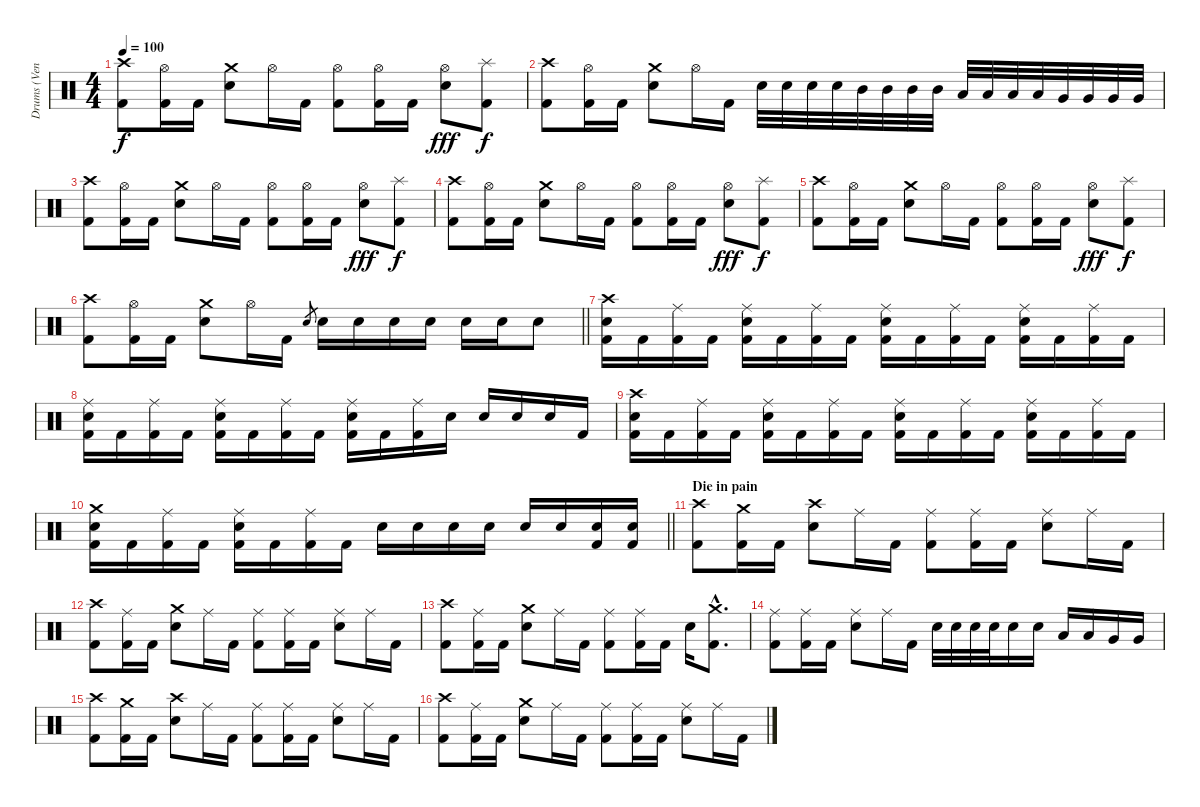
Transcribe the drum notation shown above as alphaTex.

\track ("Drums (Ventor)" "Drums (Ven") {instrument percussion}
\staff {score}
\articulation defaults
\ts (4 4)
\tempo 100
\clef neutral
\ks c
("Crash high (hit)" "Kick (hit) 2").8{dy f} ("Hi-Hat (open)" "Kick (hit) 2").16 "Kick (hit) 2".16 ("Electric Snare (hit)" "Crash medium (hit)").8 "Hi-Hat (open)".16 "Kick (hit) 2".16 ("Hi-Hat (open)" "Kick (hit) 2").8 ("Hi-Hat (open)" "Kick (hit) 2").16 "Kick (hit) 2".16 ("Electric Snare (hit)" "Hi-Hat (open)").8{dy fff} ("Splash (hit)" "Kick (hit) 2").8{dy f} |
("Crash high (hit)" "Kick (hit) 2").8 ("Hi-Hat (open)" "Kick (hit) 2").16 "Kick (hit) 2".16 ("Electric Snare (hit)" "Crash medium (hit)").8 "Hi-Hat (open)".16 "Kick (hit) 2".16 "Electric Snare (hit)".32 "Electric Snare (hit)".32 "Electric Snare (hit)".32 "Electric Snare (hit)".32 "Mid Tom (hit)".32 "Mid Tom (hit)".32 "Mid Tom (hit)".32 "Mid Tom (hit)".32 "Low Tom (hit)".32 "Low Tom (hit)".32 "Low Tom (hit)".32 "Low Tom (hit)".32 "Very Low Tom (hit)".32 "Very Low Tom (hit)".32 "Very Low Tom (hit)".32 "Very Low Tom (hit)".32 |
("Crash high (hit)" "Kick (hit) 2").8 ("Hi-Hat (open)" "Kick (hit) 2").16 "Kick (hit) 2".16 ("Electric Snare (hit)" "Crash medium (hit)").8 "Hi-Hat (open)".16 "Kick (hit) 2".16 ("Hi-Hat (open)" "Kick (hit) 2").8 ("Hi-Hat (open)" "Kick (hit) 2").16 "Kick (hit) 2".16 ("Electric Snare (hit)" "Hi-Hat (open)").8{dy fff} ("Splash (hit)" "Kick (hit) 2").8{dy f} |
("Crash high (hit)" "Kick (hit) 2").8 ("Hi-Hat (open)" "Kick (hit) 2").16 "Kick (hit) 2".16 ("Electric Snare (hit)" "Crash medium (hit)").8 "Hi-Hat (open)".16 "Kick (hit) 2".16 ("Hi-Hat (open)" "Kick (hit) 2").8 ("Hi-Hat (open)" "Kick (hit) 2").16 "Kick (hit) 2".16 ("Electric Snare (hit)" "Hi-Hat (open)").8{dy fff} ("Splash (hit)" "Kick (hit) 2").8{dy f} |
("Crash high (hit)" "Kick (hit) 2").8 ("Hi-Hat (open)" "Kick (hit) 2").16 "Kick (hit) 2".16 ("Electric Snare (hit)" "Crash medium (hit)").8 "Hi-Hat (open)".16 "Kick (hit) 2".16 ("Hi-Hat (open)" "Kick (hit) 2").8 ("Hi-Hat (open)" "Kick (hit) 2").16 "Kick (hit) 2".16 ("Electric Snare (hit)" "Hi-Hat (open)").8{dy fff} ("Splash (hit)" "Kick (hit) 2").8{dy f} |
\barLineRight lightlight
("Crash high (hit)" "Kick (hit) 2").8 ("Hi-Hat (open)" "Kick (hit) 2").16 "Kick (hit) 2".16 ("Electric Snare (hit)" "Crash medium (hit)").8 "Hi-Hat (open)".16 "Kick (hit) 2".16 "Electric Snare (hit)".8{gr} "Electric Snare (hit)".16 "Electric Snare (hit)".16 "Electric Snare (hit)".16 "Electric Snare (hit)".16 "Electric Snare (hit)".16 "Electric Snare (hit)".16 "Electric Snare (hit)".8 |
("Electric Snare (hit)" "Crash high (hit)" "Kick (hit) 2").16 "Kick (hit) 2".16 ("Ride (middle)" "Kick (hit) 2").16 "Kick (hit) 2".16 ("Electric Snare (hit)" "Ride (middle)" "Kick (hit) 2").16 "Kick (hit) 2".16 ("Ride (middle)" "Kick (hit) 2").16 "Kick (hit) 2".16 ("Electric Snare (hit)" "Ride (middle)" "Kick (hit) 2").16 "Kick (hit) 2".16 ("Ride (middle)" "Kick (hit) 2").16 "Kick (hit) 2".16 ("Electric Snare (hit)" "Ride (middle)" "Kick (hit) 2").16 "Kick (hit) 2".16 ("Ride (middle)" "Kick (hit) 2").16 "Kick (hit) 2".16 |
("Electric Snare (hit)" "Ride (middle)" "Kick (hit) 2").16 "Kick (hit) 2".16 ("Ride (middle)" "Kick (hit) 2").16 "Kick (hit) 2".16 ("Electric Snare (hit)" "Ride (middle)" "Kick (hit) 2").16 "Kick (hit) 2".16 ("Ride (middle)" "Kick (hit) 2").16 "Kick (hit) 2".16 ("Electric Snare (hit)" "Ride (middle)" "Kick (hit) 2").16 "Kick (hit) 2".16 ("Ride (middle)" "Kick (hit) 2").16 "Electric Snare (hit)".16 "Electric Snare (hit)".16 "Electric Snare (hit)".16 "Electric Snare (hit)".16 "Kick (hit) 2".16 |
("Electric Snare (hit)" "Crash high (hit)" "Kick (hit) 2").16 "Kick (hit) 2".16 ("Ride (middle)" "Kick (hit) 2").16 "Kick (hit) 2".16 ("Electric Snare (hit)" "Ride (middle)" "Kick (hit) 2").16 "Kick (hit) 2".16 ("Ride (middle)" "Kick (hit) 2").16 "Kick (hit) 2".16 ("Electric Snare (hit)" "Ride (middle)" "Kick (hit) 2").16 "Kick (hit) 2".16 ("Ride (middle)" "Kick (hit) 2").16 "Kick (hit) 2".16 ("Electric Snare (hit)" "Ride (middle)" "Kick (hit) 2").16 "Kick (hit) 2".16 ("Ride (middle)" "Kick (hit) 2").16 "Kick (hit) 2".16 |
\barLineRight lightlight
("Electric Snare (hit)" "Crash medium (hit)" "Kick (hit) 2").16 "Kick (hit) 2".16 ("Ride (middle)" "Kick (hit) 2").16 "Kick (hit) 2".16 ("Electric Snare (hit)" "Ride (middle)" "Kick (hit) 2").16 "Kick (hit) 2".16 ("Ride (middle)" "Kick (hit) 2").16 "Kick (hit) 2".16 "Electric Snare (hit)".16 "Electric Snare (hit)".16 "Electric Snare (hit)".16 "Electric Snare (hit)".16 "Electric Snare (hit)".16 "Electric Snare (hit)".16 ("Electric Snare (hit)" "Kick (hit) 2").16 ("Electric Snare (hit)" "Kick (hit) 2").16 |
\section ("" "Die in pain")
("Crash high (hit)" "Kick (hit) 2").8 ("Crash medium (hit)" "Kick (hit) 2").16 "Kick (hit) 2".16 ("Electric Snare (hit)" "Crash high (hit)").8 "Ride (middle)".16 "Kick (hit) 2".16 ("Ride (middle)" "Kick (hit) 2").8 ("Ride (middle)" "Kick (hit) 2").16 "Kick (hit) 2".16 ("Electric Snare (hit)" "Ride (middle)").8 "Ride (middle)".16 "Kick (hit) 2".16 |
("Crash high (hit)" "Kick (hit) 2").8 ("Ride (middle)" "Kick (hit) 2").16 "Kick (hit) 2".16 ("Electric Snare (hit)" "Crash medium (hit)").8 "Ride (middle)".16 "Kick (hit) 2".16 ("Ride (middle)" "Kick (hit) 2").8 ("Ride (middle)" "Kick (hit) 2").16 "Kick (hit) 2".16 ("Electric Snare (hit)" "Ride (middle)").8 "Ride (middle)".16 "Kick (hit) 2".16 |
("Crash high (hit)" "Kick (hit) 2").8 ("Ride (middle)" "Kick (hit) 2").16 "Kick (hit) 2".16 ("Electric Snare (hit)" "Crash medium (hit)").8 "Ride (middle)".16 "Kick (hit) 2".16 ("Ride (middle)" "Kick (hit) 2").8 ("Ride (middle)" "Kick (hit) 2").16 "Kick (hit) 2".16 "Electric Snare (hit)".16 ("Crash medium (hit)"{hac} "Kick (hit) 2"{hac}).8{d} |
("Ride (middle)" "Kick (hit) 2").8 ("Ride (middle)" "Kick (hit) 2").16 "Kick (hit) 2".16 ("Electric Snare (hit)" "Ride (middle)").8 "Ride (middle)".16 "Kick (hit) 2".16 "Electric Snare (hit)".32 "Electric Snare (hit)".32 "Electric Snare (hit)".32 "Electric Snare (hit)".32 "Electric Snare (hit)".16 "Electric Snare (hit)".16 "Low Tom (hit)".16 "Low Tom (hit)".16 "Very Low Tom (hit)".16 "Very Low Tom (hit)".16 |
("Crash high (hit)" "Kick (hit) 2").8 ("Crash medium (hit)" "Kick (hit) 2").16 "Kick (hit) 2".16 ("Electric Snare (hit)" "Crash high (hit)").8 "Ride (middle)".16 "Kick (hit) 2".16 ("Ride (middle)" "Kick (hit) 2").8 ("Ride (middle)" "Kick (hit) 2").16 "Kick (hit) 2".16 ("Electric Snare (hit)" "Ride (middle)").8 "Ride (middle)".16 "Kick (hit) 2".16 |
("Crash high (hit)" "Kick (hit) 2").8 ("Ride (middle)" "Kick (hit) 2").16 "Kick (hit) 2".16 ("Electric Snare (hit)" "Crash medium (hit)").8 "Ride (middle)".16 "Kick (hit) 2".16 ("Ride (middle)" "Kick (hit) 2").8 ("Ride (middle)" "Kick (hit) 2").16 "Kick (hit) 2".16 ("Electric Snare (hit)" "Ride (middle)").8 "Ride (middle)".16 "Kick (hit) 2".16
